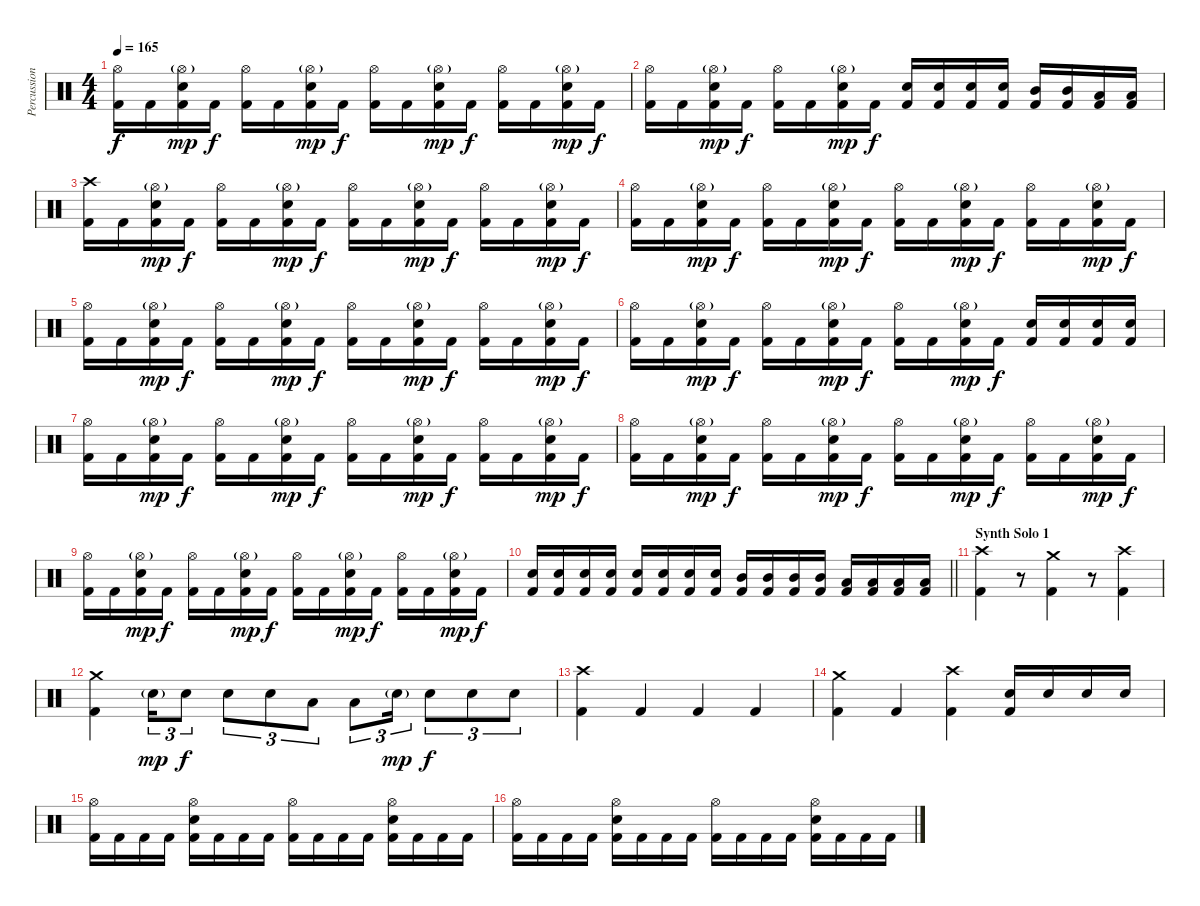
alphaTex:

\track ("Percussion" "Percussion") {instrument percussion}
\staff {score}
\articulation defaults
\ts (4 4)
\tempo 165
\clef neutral
\ks c
("Hi-Hat (open)" "Kick (hit) 2").16{dy f} "Kick (hit) 2".16 ("Hi-Hat (open)"{g} "Snare (hit) 2" "Kick (hit) 2").16{dy mp} "Kick (hit) 2".16{dy f} ("Hi-Hat (open)" "Kick (hit) 2").16 "Kick (hit) 2".16 ("Hi-Hat (open)"{g} "Snare (hit) 2" "Kick (hit) 2").16{dy mp} "Kick (hit) 2".16{dy f} ("Hi-Hat (open)" "Kick (hit) 2").16 "Kick (hit) 2".16 ("Hi-Hat (open)"{g} "Snare (hit) 2" "Kick (hit) 2").16{dy mp} "Kick (hit) 2".16{dy f} ("Hi-Hat (open)" "Kick (hit) 2").16 "Kick (hit) 2".16 ("Hi-Hat (open)"{g} "Snare (hit) 2" "Kick (hit) 2").16{dy mp} "Kick (hit) 2".16{dy f} |
("Hi-Hat (open)" "Kick (hit) 2").16 "Kick (hit) 2".16 ("Hi-Hat (open)"{g} "Snare (hit) 2" "Kick (hit) 2").16{dy mp} "Kick (hit) 2".16{dy f} ("Hi-Hat (open)" "Kick (hit) 2").16 "Kick (hit) 2".16 ("Hi-Hat (open)"{g} "Snare (hit) 2" "Kick (hit) 2").16{dy mp} "Kick (hit) 2".16{dy f} ("Snare (hit) 2" "Kick (hit) 2").16 ("Snare (hit) 2" "Kick (hit) 2").16 ("Snare (hit) 2" "Kick (hit) 2").16 ("Snare (hit) 2" "Kick (hit) 2").16 ("Mid Tom (hit)" "Kick (hit) 2").16 ("Mid Tom (hit)" "Kick (hit) 2").16 ("Low Tom (hit)" "Kick (hit) 2").16 ("Low Tom (hit)" "Kick (hit) 2").16 |
("Crash high (hit)" "Kick (hit) 2").16 "Kick (hit) 2".16 ("Hi-Hat (open)"{g} "Snare (hit) 2" "Kick (hit) 2").16{dy mp} "Kick (hit) 2".16{dy f} ("Hi-Hat (open)" "Kick (hit) 2").16 "Kick (hit) 2".16 ("Hi-Hat (open)"{g} "Snare (hit) 2" "Kick (hit) 2").16{dy mp} "Kick (hit) 2".16{dy f} ("Hi-Hat (open)" "Kick (hit) 2").16 "Kick (hit) 2".16 ("Hi-Hat (open)"{g} "Snare (hit) 2" "Kick (hit) 2").16{dy mp} "Kick (hit) 2".16{dy f} ("Hi-Hat (open)" "Kick (hit) 2").16 "Kick (hit) 2".16 ("Hi-Hat (open)"{g} "Snare (hit) 2" "Kick (hit) 2").16{dy mp} "Kick (hit) 2".16{dy f} |
("Hi-Hat (open)" "Kick (hit) 2").16 "Kick (hit) 2".16 ("Hi-Hat (open)"{g} "Snare (hit) 2" "Kick (hit) 2").16{dy mp} "Kick (hit) 2".16{dy f} ("Hi-Hat (open)" "Kick (hit) 2").16 "Kick (hit) 2".16 ("Hi-Hat (open)"{g} "Snare (hit) 2" "Kick (hit) 2").16{dy mp} "Kick (hit) 2".16{dy f} ("Hi-Hat (open)" "Kick (hit) 2").16 "Kick (hit) 2".16 ("Hi-Hat (open)"{g} "Snare (hit) 2" "Kick (hit) 2").16{dy mp} "Kick (hit) 2".16{dy f} ("Hi-Hat (open)" "Kick (hit) 2").16 "Kick (hit) 2".16 ("Hi-Hat (open)"{g} "Snare (hit) 2" "Kick (hit) 2").16{dy mp} "Kick (hit) 2".16{dy f} |
("Hi-Hat (open)" "Kick (hit) 2").16 "Kick (hit) 2".16 ("Hi-Hat (open)"{g} "Snare (hit) 2" "Kick (hit) 2").16{dy mp} "Kick (hit) 2".16{dy f} ("Hi-Hat (open)" "Kick (hit) 2").16 "Kick (hit) 2".16 ("Hi-Hat (open)"{g} "Snare (hit) 2" "Kick (hit) 2").16{dy mp} "Kick (hit) 2".16{dy f} ("Hi-Hat (open)" "Kick (hit) 2").16 "Kick (hit) 2".16 ("Hi-Hat (open)"{g} "Snare (hit) 2" "Kick (hit) 2").16{dy mp} "Kick (hit) 2".16{dy f} ("Hi-Hat (open)" "Kick (hit) 2").16 "Kick (hit) 2".16 ("Hi-Hat (open)"{g} "Snare (hit) 2" "Kick (hit) 2").16{dy mp} "Kick (hit) 2".16{dy f} |
("Hi-Hat (open)" "Kick (hit) 2").16 "Kick (hit) 2".16 ("Hi-Hat (open)"{g} "Snare (hit) 2" "Kick (hit) 2").16{dy mp} "Kick (hit) 2".16{dy f} ("Hi-Hat (open)" "Kick (hit) 2").16 "Kick (hit) 2".16 ("Hi-Hat (open)"{g} "Snare (hit) 2" "Kick (hit) 2").16{dy mp} "Kick (hit) 2".16{dy f} ("Hi-Hat (open)" "Kick (hit) 2").16 "Kick (hit) 2".16 ("Hi-Hat (open)"{g} "Snare (hit) 2" "Kick (hit) 2").16{dy mp} "Kick (hit) 2".16{dy f} ("Snare (hit) 2" "Kick (hit) 2").16 ("Snare (hit) 2" "Kick (hit) 2").16 ("Snare (hit) 2" "Kick (hit) 2").16 ("Snare (hit) 2" "Kick (hit) 2").16 |
("Hi-Hat (open)" "Kick (hit) 2").16 "Kick (hit) 2".16 ("Hi-Hat (open)"{g} "Snare (hit) 2" "Kick (hit) 2").16{dy mp} "Kick (hit) 2".16{dy f} ("Hi-Hat (open)" "Kick (hit) 2").16 "Kick (hit) 2".16 ("Hi-Hat (open)"{g} "Snare (hit) 2" "Kick (hit) 2").16{dy mp} "Kick (hit) 2".16{dy f} ("Hi-Hat (open)" "Kick (hit) 2").16 "Kick (hit) 2".16 ("Hi-Hat (open)"{g} "Snare (hit) 2" "Kick (hit) 2").16{dy mp} "Kick (hit) 2".16{dy f} ("Hi-Hat (open)" "Kick (hit) 2").16 "Kick (hit) 2".16 ("Hi-Hat (open)"{g} "Snare (hit) 2" "Kick (hit) 2").16{dy mp} "Kick (hit) 2".16{dy f} |
("Hi-Hat (open)" "Kick (hit) 2").16 "Kick (hit) 2".16 ("Hi-Hat (open)"{g} "Snare (hit) 2" "Kick (hit) 2").16{dy mp} "Kick (hit) 2".16{dy f} ("Hi-Hat (open)" "Kick (hit) 2").16 "Kick (hit) 2".16 ("Hi-Hat (open)"{g} "Snare (hit) 2" "Kick (hit) 2").16{dy mp} "Kick (hit) 2".16{dy f} ("Hi-Hat (open)" "Kick (hit) 2").16 "Kick (hit) 2".16 ("Hi-Hat (open)"{g} "Snare (hit) 2" "Kick (hit) 2").16{dy mp} "Kick (hit) 2".16{dy f} ("Hi-Hat (open)" "Kick (hit) 2").16 "Kick (hit) 2".16 ("Hi-Hat (open)"{g} "Snare (hit) 2" "Kick (hit) 2").16{dy mp} "Kick (hit) 2".16{dy f} |
("Hi-Hat (open)" "Kick (hit) 2").16 "Kick (hit) 2".16 ("Hi-Hat (open)"{g} "Snare (hit) 2" "Kick (hit) 2").16{dy mp} "Kick (hit) 2".16{dy f} ("Hi-Hat (open)" "Kick (hit) 2").16 "Kick (hit) 2".16 ("Hi-Hat (open)"{g} "Snare (hit) 2" "Kick (hit) 2").16{dy mp} "Kick (hit) 2".16{dy f} ("Hi-Hat (open)" "Kick (hit) 2").16 "Kick (hit) 2".16 ("Hi-Hat (open)"{g} "Snare (hit) 2" "Kick (hit) 2").16{dy mp} "Kick (hit) 2".16{dy f} ("Hi-Hat (open)" "Kick (hit) 2").16 "Kick (hit) 2".16 ("Hi-Hat (open)"{g} "Snare (hit) 2" "Kick (hit) 2").16{dy mp} "Kick (hit) 2".16{dy f} |
\barLineRight lightlight
("Snare (hit) 2" "Kick (hit) 2").16 ("Snare (hit) 2" "Kick (hit) 2").16 ("Snare (hit) 2" "Kick (hit) 2").16 ("Snare (hit) 2" "Kick (hit) 2").16 ("Snare (hit) 2" "Kick (hit) 2").16 ("Snare (hit) 2" "Kick (hit) 2").16 ("Snare (hit) 2" "Kick (hit) 2").16 ("Snare (hit) 2" "Kick (hit) 2").16 ("Mid Tom (hit)" "Kick (hit) 2").16 ("Mid Tom (hit)" "Kick (hit) 2").16 ("Mid Tom (hit)" "Kick (hit) 2").16 ("Mid Tom (hit)" "Kick (hit) 2").16 ("Low Tom (hit)" "Kick (hit) 2").16 ("Low Tom (hit)" "Kick (hit) 2").16 ("Low Tom (hit)" "Kick (hit) 2").16 ("Low Tom (hit)" "Kick (hit) 2").16 |
\section ("" "Synth Solo 1")
("Crash high (hit)" "Kick (hit) 2").4 r.8 ("Crash medium (hit)" "Kick (hit) 2").4 r.8 ("Crash high (hit)" "Kick (hit) 2").4 |
("Crash medium (hit)" "Kick (hit) 2").4 "Snare (hit) 2"{g}.16{tu (3 2) dy mp} "Snare (hit) 2".8{tu (3 2) dy f} "Snare (hit) 2".8{tu (3 2)} "Snare (hit) 2".8{tu (3 2)} "Low Tom (hit)".8{tu (3 2)} "Low Tom (hit)".8{tu (3 2)} "Snare (hit) 2"{g}.16{tu (3 2) dy mp} "Snare (hit) 2".8{tu (3 2) dy f} "Snare (hit) 2".8{tu (3 2)} "Snare (hit) 2".8{tu (3 2)} |
("Crash high (hit)" "Kick (hit) 2").4 "Kick (hit) 2".4 "Kick (hit) 2".4 "Kick (hit) 2".4 |
("Crash medium (hit)" "Kick (hit) 2").4 "Kick (hit) 2".4 ("Crash high (hit)" "Kick (hit) 2").4 ("Snare (hit) 2" "Kick (hit) 2").16 "Snare (hit) 2".16 "Snare (hit) 2".16 "Snare (hit) 2".16 |
("Hi-Hat (open)" "Kick (hit) 2").16 "Kick (hit) 2".16 "Kick (hit) 2".16 "Kick (hit) 2".16 ("Hi-Hat (open)" "Snare (hit) 2" "Kick (hit) 2").16 "Kick (hit) 2".16 "Kick (hit) 2".16 "Kick (hit) 2".16 ("Hi-Hat (open)" "Kick (hit) 2").16 "Kick (hit) 2".16 "Kick (hit) 2".16 "Kick (hit) 2".16 ("Hi-Hat (open)" "Snare (hit) 2" "Kick (hit) 2").16 "Kick (hit) 2".16 "Kick (hit) 2".16 "Kick (hit) 2".16 |
("Hi-Hat (open)" "Kick (hit) 2").16 "Kick (hit) 2".16 "Kick (hit) 2".16 "Kick (hit) 2".16 ("Hi-Hat (open)" "Snare (hit) 2" "Kick (hit) 2").16 "Kick (hit) 2".16 "Kick (hit) 2".16 "Kick (hit) 2".16 ("Hi-Hat (open)" "Kick (hit) 2").16 "Kick (hit) 2".16 "Kick (hit) 2".16 "Kick (hit) 2".16 ("Hi-Hat (open)" "Snare (hit) 2" "Kick (hit) 2").16 "Kick (hit) 2".16 "Kick (hit) 2".16 "Kick (hit) 2".16
